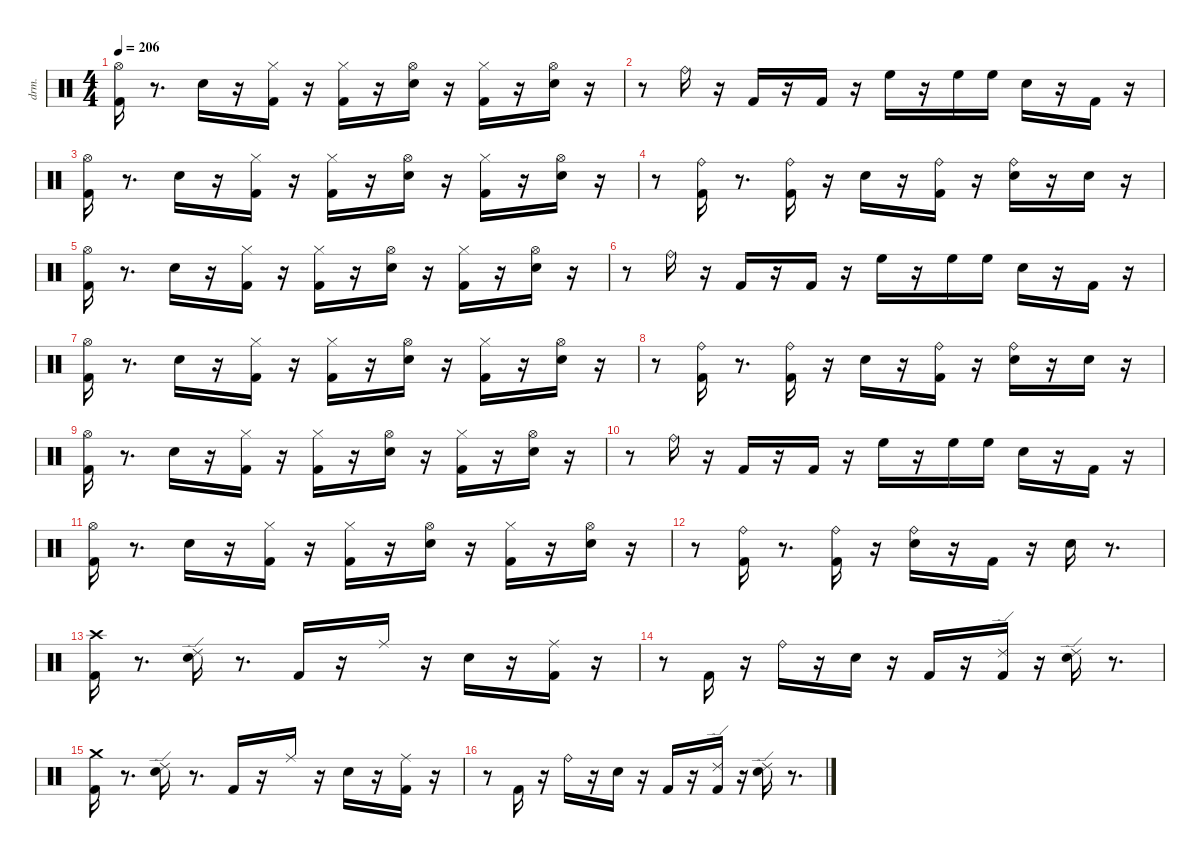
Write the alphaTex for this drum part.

\defaultSystemsLayout 4
\hideDynamics
\bracketExtendMode nobrackets
\otherSystemsTrackNameOrientation horizontal
\track ("EZdrummer 3" "drm.") {instrument percussion}
\staff {score}
\articulation defaults
\ts (4 4)
\tempo 206
\clef neutral
\ks aminor
("Kick (hit) 2" "Hi-Hat (open)"{acc #}).16{dy ff beam Down} r.8{d beam Down} "Snare (hit) 2".16{dy pp beam Down} r.16{beam Down} ("Kick (hit) 2" "Hi-Hat (closed)"{acc #}).16{dy ff beam Down} r.16{beam Down} ("Kick (hit) 2" "Hi-Hat (closed)"{acc #}).16{beam Down} r.16{beam Down} ("Snare (hit) 2" "Hi-Hat (open)"{acc #}).16{beam Down} r.16{beam Down} ("Kick (hit) 2" "Hi-Hat (closed)"{acc #}).16{beam Down} r.16{beam Down} ("Snare (hit) 2" "Hi-Hat (open)"{acc #}).16{dy fff beam Down} r.16{beam Down} |
r.8{beam Down} "Ride (bell)".16{beam Down} r.16{beam Down} "Kick (hit) 2".16{dy mf beam Up} r.16{beam Up} "Kick (hit) 2".16{dy fff beam Up} r.16{beam Up} "High Floor Tom (hit)".16{dy ff beam Down} r.16{beam Down} "High Floor Tom (hit)".16{dy mf beam Down} "High Floor Tom (hit)".16{dy ppp beam Down} "Snare (hit) 2".16{dy ff beam Down} r.16{beam Down} "Kick (hit) 2".16{dy mp beam Up} r.16{beam Up} |
("Kick (hit) 2" "Hi-Hat (open)"{acc #}).16{dy ff beam Down} r.8{d beam Down} "Snare (hit) 2".16{dy pp beam Down} r.16{beam Down} ("Kick (hit) 2" "Hi-Hat (closed)"{acc #}).16{dy ff beam Down} r.16{beam Down} ("Kick (hit) 2" "Hi-Hat (closed)"{acc #}).16{beam Down} r.16{beam Down} ("Snare (hit) 2" "Hi-Hat (open)"{acc #}).16{beam Down} r.16{beam Down} ("Kick (hit) 2" "Hi-Hat (closed)"{acc #}).16{beam Down} r.16{beam Down} ("Snare (hit) 2" "Hi-Hat (open)"{acc #}).16{dy fff beam Down} r.16{beam Down} |
r.8{beam Down} ("Kick (hit) 2" "Ride (bell)").16{dy ff beam Down} r.8{d beam Down} ("Kick (hit) 2" "Ride (bell)").16{beam Down} r.16{beam Down} "Snare (hit) 2".16{beam Down} r.16{beam Down} ("Kick (hit) 2" "Ride (bell)").16{beam Down} r.16{beam Down} ("Snare (hit) 2" "Ride (bell)").16{beam Down} r.16{beam Down} "Snare (hit) 2".16{dy mp beam Down} r.16{beam Down} |
("Kick (hit) 2" "Hi-Hat (open)"{acc #}).16{dy ff beam Down} r.8{d beam Down} "Snare (hit) 2".16{dy pp beam Down} r.16{beam Down} ("Kick (hit) 2" "Hi-Hat (closed)"{acc #}).16{dy ff beam Down} r.16{beam Down} ("Kick (hit) 2" "Hi-Hat (closed)"{acc #}).16{beam Down} r.16{beam Down} ("Snare (hit) 2" "Hi-Hat (open)"{acc #}).16{beam Down} r.16{beam Down} ("Kick (hit) 2" "Hi-Hat (closed)"{acc #}).16{beam Down} r.16{beam Down} ("Snare (hit) 2" "Hi-Hat (open)"{acc #}).16{dy fff beam Down} r.16{beam Down} |
r.8{beam Down} "Ride (bell)".16{beam Down} r.16{beam Down} "Kick (hit) 2".16{dy mf beam Up} r.16{beam Up} "Kick (hit) 2".16{dy fff beam Up} r.16{beam Up} "High Floor Tom (hit)".16{dy ff beam Down} r.16{beam Down} "High Floor Tom (hit)".16{dy mf beam Down} "High Floor Tom (hit)".16{dy ppp beam Down} "Snare (hit) 2".16{dy ff beam Down} r.16{beam Down} "Kick (hit) 2".16{dy mp beam Up} r.16{beam Up} |
("Kick (hit) 2" "Hi-Hat (open)"{acc #}).16{dy ff beam Down} r.8{d beam Down} "Snare (hit) 2".16{dy pp beam Down} r.16{beam Down} ("Kick (hit) 2" "Hi-Hat (closed)"{acc #}).16{dy ff beam Down} r.16{beam Down} ("Kick (hit) 2" "Hi-Hat (closed)"{acc #}).16{beam Down} r.16{beam Down} ("Snare (hit) 2" "Hi-Hat (open)"{acc #}).16{beam Down} r.16{beam Down} ("Kick (hit) 2" "Hi-Hat (closed)"{acc #}).16{beam Down} r.16{beam Down} ("Snare (hit) 2" "Hi-Hat (open)"{acc #}).16{dy fff beam Down} r.16{beam Down} |
r.8{beam Down} ("Kick (hit) 2" "Ride (bell)").16{dy ff beam Down} r.8{d beam Down} ("Kick (hit) 2" "Ride (bell)").16{beam Down} r.16{beam Down} "Snare (hit) 2".16{beam Down} r.16{beam Down} ("Kick (hit) 2" "Ride (bell)").16{beam Down} r.16{beam Down} ("Snare (hit) 2" "Ride (bell)").16{beam Down} r.16{beam Down} "Snare (hit) 2".16{dy mp beam Down} r.16{beam Down} |
("Kick (hit) 2" "Hi-Hat (open)"{acc #}).16{dy ff beam Down} r.8{d beam Down} "Snare (hit) 2".16{dy pp beam Down} r.16{beam Down} ("Kick (hit) 2" "Hi-Hat (closed)"{acc #}).16{dy ff beam Down} r.16{beam Down} ("Kick (hit) 2" "Hi-Hat (closed)"{acc #}).16{beam Down} r.16{beam Down} ("Snare (hit) 2" "Hi-Hat (open)"{acc #}).16{beam Down} r.16{beam Down} ("Kick (hit) 2" "Hi-Hat (closed)"{acc #}).16{beam Down} r.16{beam Down} ("Snare (hit) 2" "Hi-Hat (open)"{acc #}).16{dy fff beam Down} r.16{beam Down} |
r.8{beam Down} "Ride (bell)".16{beam Down} r.16{beam Down} "Kick (hit) 2".16{dy mf beam Up} r.16{beam Up} "Kick (hit) 2".16{dy fff beam Up} r.16{beam Up} "High Floor Tom (hit)".16{dy ff beam Down} r.16{beam Down} "High Floor Tom (hit)".16{dy mf beam Down} "High Floor Tom (hit)".16{dy ppp beam Down} "Snare (hit) 2".16{dy ff beam Down} r.16{beam Down} "Kick (hit) 2".16{dy mp beam Up} r.16{beam Up} |
("Kick (hit) 2" "Hi-Hat (open)"{acc #}).16{dy ff beam Down} r.8{d beam Down} "Snare (hit) 2".16{dy pp beam Down} r.16{beam Down} ("Kick (hit) 2" "Hi-Hat (closed)"{acc #}).16{dy ff beam Down} r.16{beam Down} ("Kick (hit) 2" "Hi-Hat (closed)"{acc #}).16{beam Down} r.16{beam Down} ("Snare (hit) 2" "Hi-Hat (open)"{acc #}).16{beam Down} r.16{beam Down} ("Kick (hit) 2" "Hi-Hat (closed)"{acc #}).16{beam Down} r.16{beam Down} ("Snare (hit) 2" "Hi-Hat (open)"{acc #}).16{dy fff beam Down} r.16{beam Down} |
r.8{beam Down} ("Kick (hit) 2" "Ride (bell)").16{dy ff beam Down} r.8{d beam Down} ("Kick (hit) 2" "Ride (bell)").16{beam Down} r.16{beam Down} ("Snare (hit) 2" "Ride (bell)").16{beam Down} r.16{beam Down} "Kick (hit) 2".16{beam Up} r.16{beam Up} "Snare (hit) 2".16{dy fff beam Down} r.8{d beam Down} |
("Kick (hit) 2" "Crash high (hit)"{acc #}).16{beam Down} r.8{d beam Down} ("Snare (hit) 2" "Ride (edge) 2").16{dy ff beam Down} r.8{d beam Down} "Kick (hit) 2".16{beam Up} r.16{beam Up} "Ride (middle)"{acc #}.16{dy fff beam Down} r.16{beam Down} "Snare (hit) 2".16{dy ff beam Down} r.16{beam Down} ("Kick (hit) 2" "Ride (middle)"{acc #}).16{beam Down} r.16{beam Down} |
r.8{beam Down} "Kick (hit) 2".16{beam Up} r.16{beam Up} "Ride (bell)".16{dy fff beam Down} r.16{beam Down} "Snare (hit) 2".16{dy ff beam Down} r.16{beam Down} "Kick (hit) 2".16{dy mf beam Up} r.16{beam Up} ("Kick (hit) 2" "Ride (edge) 2").16{dy fff beam Up} r.16{beam Up} ("Snare (hit) 2" "Ride (edge) 2").16{dy ff beam Down} r.8{d beam Down} |
("Kick (hit) 2" "Crash medium (hit)").16{beam Down} r.8{d beam Down} ("Snare (hit) 2" "Ride (edge) 2").16{beam Down} r.8{d beam Down} "Kick (hit) 2".16{beam Up} r.16{beam Up} "Ride (middle)"{acc #}.16{dy fff beam Down} r.16{beam Down} "Snare (hit) 2".16{dy ff beam Down} r.16{beam Down} ("Kick (hit) 2" "Ride (middle)"{acc #}).16{beam Down} r.16{beam Down} |
r.8{beam Down} "Kick (hit) 2".16{beam Up} r.16{beam Up} "Ride (bell)".16{beam Down} r.16{beam Down} "Snare (hit) 2".16{beam Down} r.16{beam Down} "Kick (hit) 2".16{dy mf beam Up} r.16{beam Up} ("Kick (hit) 2" "Ride (edge) 2").16{dy fff beam Up} r.16{beam Up} ("Snare (hit) 2" "Ride (edge) 2").16{dy ff beam Down} r.8{d beam Down}
